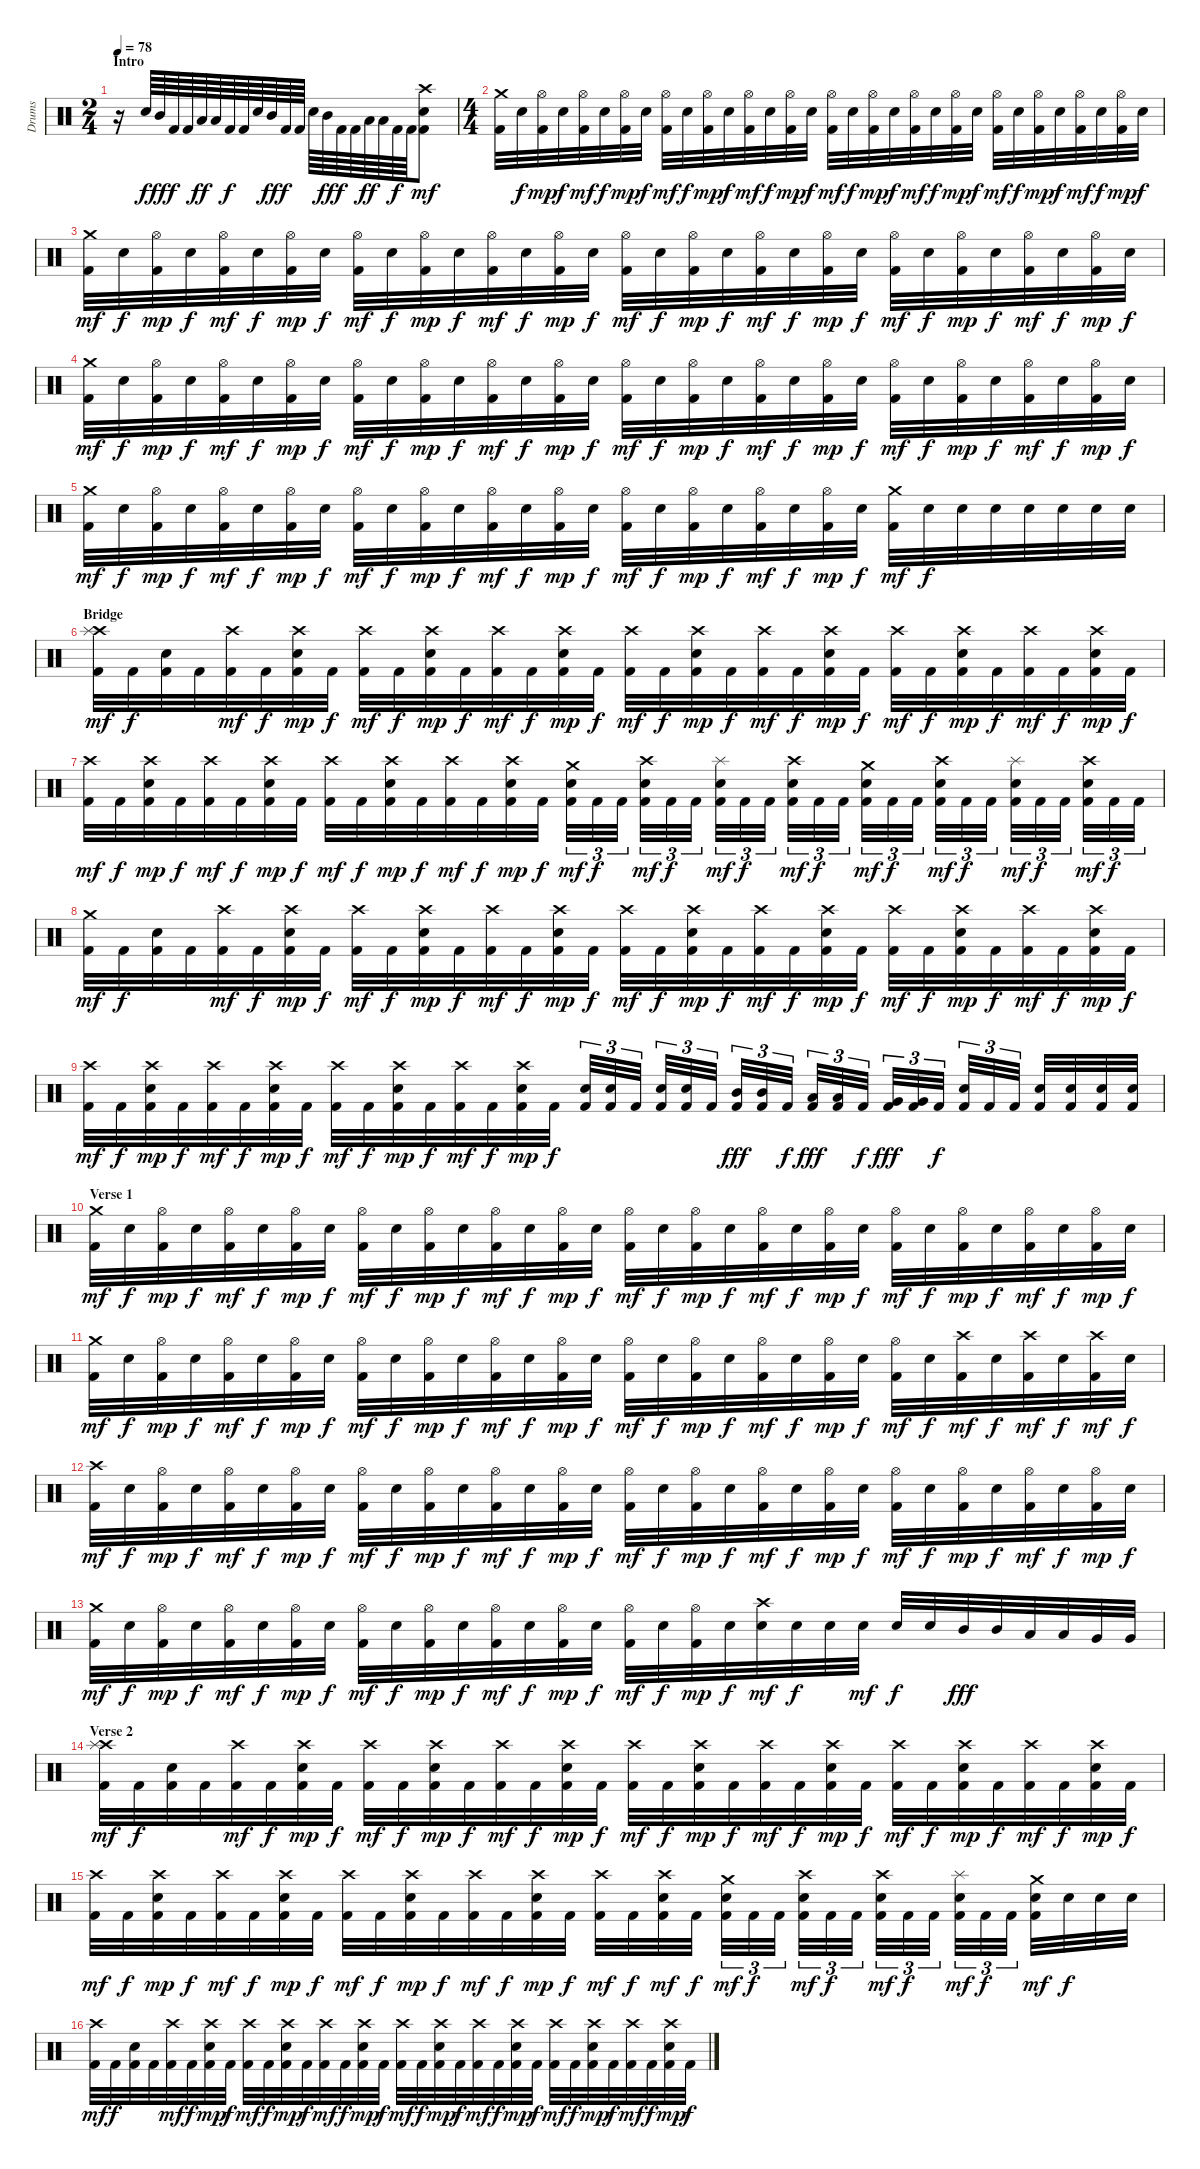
\track ("Drums" "Drums") {instrument percussion}
\staff {score}
\articulation defaults
\ts (2 4)
\section ("" "Intro")
\tempo 78
\clef neutral
\ks c
r.16{dy f} "Electric Snare (hit)".64 "Mid Tom (hit)".64{dy ff} "Kick (hit) 2".64{dy f} "Kick (hit) 2".64 "Low Tom (hit)".64{dy ff} "Low Tom (hit)".64 "Kick (hit) 2".64{dy f} "Kick (hit) 2".64 "Electric Snare (hit)".64 "Mid Tom (hit)".64{dy ff} "Kick (hit) 2".64{dy f} "Kick (hit) 2".64 "Electric Snare (hit)".64 "Mid Tom (hit)".64{dy ff} "Kick (hit) 2".64{dy f} "Kick (hit) 2".64 "Low Tom (hit)".64{dy ff} "Low Tom (hit)".64 "Kick (hit) 2".64{dy f} "Kick (hit) 2".64 ("Crash high (hit)" "Electric Snare (hit)" "Kick (hit) 2").8{dy mf} |
\ts (4 4)
("Crash medium (hit)" "Kick (hit) 2").32 "Electric Snare (hit)".32{dy f} ("Hi-Hat (open)" "Kick (hit) 2").32{dy mp} "Electric Snare (hit)".32{dy f} ("Hi-Hat (open)" "Kick (hit) 2").32{dy mf} "Electric Snare (hit)".32{dy f} ("Hi-Hat (open)" "Kick (hit) 2").32{dy mp} "Electric Snare (hit)".32{dy f} ("Hi-Hat (open)" "Kick (hit) 2").32{dy mf} "Electric Snare (hit)".32{dy f} ("Hi-Hat (open)" "Kick (hit) 2").32{dy mp} "Electric Snare (hit)".32{dy f} ("Hi-Hat (open)" "Kick (hit) 2").32{dy mf} "Electric Snare (hit)".32{dy f} ("Hi-Hat (open)" "Kick (hit) 2").32{dy mp} "Electric Snare (hit)".32{dy f} ("Hi-Hat (open)" "Kick (hit) 2").32{dy mf} "Electric Snare (hit)".32{dy f} ("Hi-Hat (open)" "Kick (hit) 2").32{dy mp} "Electric Snare (hit)".32{dy f} ("Hi-Hat (open)" "Kick (hit) 2").32{dy mf} "Electric Snare (hit)".32{dy f} ("Hi-Hat (open)" "Kick (hit) 2").32{dy mp} "Electric Snare (hit)".32{dy f} ("Hi-Hat (open)" "Kick (hit) 2").32{dy mf} "Electric Snare (hit)".32{dy f} ("Hi-Hat (open)" "Kick (hit) 2").32{dy mp} "Electric Snare (hit)".32{dy f} ("Hi-Hat (open)" "Kick (hit) 2").32{dy mf} "Electric Snare (hit)".32{dy f} ("Hi-Hat (open)" "Kick (hit) 2").32{dy mp} "Electric Snare (hit)".32{dy f} |
("Crash medium (hit)" "Kick (hit) 2").32{dy mf} "Electric Snare (hit)".32{dy f} ("Hi-Hat (open)" "Kick (hit) 2").32{dy mp} "Electric Snare (hit)".32{dy f} ("Hi-Hat (open)" "Kick (hit) 2").32{dy mf} "Electric Snare (hit)".32{dy f} ("Hi-Hat (open)" "Kick (hit) 2").32{dy mp} "Electric Snare (hit)".32{dy f} ("Hi-Hat (open)" "Kick (hit) 2").32{dy mf} "Electric Snare (hit)".32{dy f} ("Hi-Hat (open)" "Kick (hit) 2").32{dy mp} "Electric Snare (hit)".32{dy f} ("Hi-Hat (open)" "Kick (hit) 2").32{dy mf} "Electric Snare (hit)".32{dy f} ("Hi-Hat (open)" "Kick (hit) 2").32{dy mp} "Electric Snare (hit)".32{dy f} ("Hi-Hat (open)" "Kick (hit) 2").32{dy mf} "Electric Snare (hit)".32{dy f} ("Hi-Hat (open)" "Kick (hit) 2").32{dy mp} "Electric Snare (hit)".32{dy f} ("Hi-Hat (open)" "Kick (hit) 2").32{dy mf} "Electric Snare (hit)".32{dy f} ("Hi-Hat (open)" "Kick (hit) 2").32{dy mp} "Electric Snare (hit)".32{dy f} ("Hi-Hat (open)" "Kick (hit) 2").32{dy mf} "Electric Snare (hit)".32{dy f} ("Hi-Hat (open)" "Kick (hit) 2").32{dy mp} "Electric Snare (hit)".32{dy f} ("Hi-Hat (open)" "Kick (hit) 2").32{dy mf} "Electric Snare (hit)".32{dy f} ("Hi-Hat (open)" "Kick (hit) 2").32{dy mp} "Electric Snare (hit)".32{dy f} |
("Crash medium (hit)" "Kick (hit) 2").32{dy mf} "Electric Snare (hit)".32{dy f} ("Hi-Hat (open)" "Kick (hit) 2").32{dy mp} "Electric Snare (hit)".32{dy f} ("Hi-Hat (open)" "Kick (hit) 2").32{dy mf} "Electric Snare (hit)".32{dy f} ("Hi-Hat (open)" "Kick (hit) 2").32{dy mp} "Electric Snare (hit)".32{dy f} ("Hi-Hat (open)" "Kick (hit) 2").32{dy mf} "Electric Snare (hit)".32{dy f} ("Hi-Hat (open)" "Kick (hit) 2").32{dy mp} "Electric Snare (hit)".32{dy f} ("Hi-Hat (open)" "Kick (hit) 2").32{dy mf} "Electric Snare (hit)".32{dy f} ("Hi-Hat (open)" "Kick (hit) 2").32{dy mp} "Electric Snare (hit)".32{dy f} ("Hi-Hat (open)" "Kick (hit) 2").32{dy mf} "Electric Snare (hit)".32{dy f} ("Hi-Hat (open)" "Kick (hit) 2").32{dy mp} "Electric Snare (hit)".32{dy f} ("Hi-Hat (open)" "Kick (hit) 2").32{dy mf} "Electric Snare (hit)".32{dy f} ("Hi-Hat (open)" "Kick (hit) 2").32{dy mp} "Electric Snare (hit)".32{dy f} ("Hi-Hat (open)" "Kick (hit) 2").32{dy mf} "Electric Snare (hit)".32{dy f} ("Hi-Hat (open)" "Kick (hit) 2").32{dy mp} "Electric Snare (hit)".32{dy f} ("Hi-Hat (open)" "Kick (hit) 2").32{dy mf} "Electric Snare (hit)".32{dy f} ("Hi-Hat (open)" "Kick (hit) 2").32{dy mp} "Electric Snare (hit)".32{dy f} |
("Crash medium (hit)" "Kick (hit) 2").32{dy mf} "Electric Snare (hit)".32{dy f} ("Hi-Hat (open)" "Kick (hit) 2").32{dy mp} "Electric Snare (hit)".32{dy f} ("Hi-Hat (open)" "Kick (hit) 2").32{dy mf} "Electric Snare (hit)".32{dy f} ("Hi-Hat (open)" "Kick (hit) 2").32{dy mp} "Electric Snare (hit)".32{dy f} ("Hi-Hat (open)" "Kick (hit) 2").32{dy mf} "Electric Snare (hit)".32{dy f} ("Hi-Hat (open)" "Kick (hit) 2").32{dy mp} "Electric Snare (hit)".32{dy f} ("Hi-Hat (open)" "Kick (hit) 2").32{dy mf} "Electric Snare (hit)".32{dy f} ("Hi-Hat (open)" "Kick (hit) 2").32{dy mp} "Electric Snare (hit)".32{dy f} ("Hi-Hat (open)" "Kick (hit) 2").32{dy mf} "Electric Snare (hit)".32{dy f} ("Hi-Hat (open)" "Kick (hit) 2").32{dy mp} "Electric Snare (hit)".32{dy f} ("Hi-Hat (open)" "Kick (hit) 2").32{dy mf} "Electric Snare (hit)".32{dy f} ("Hi-Hat (open)" "Kick (hit) 2").32{dy mp} "Electric Snare (hit)".32{dy f} ("Crash medium (hit)" "Kick (hit) 2").32{dy mf} "Electric Snare (hit)".32{dy f} "Electric Snare (hit)".32 "Electric Snare (hit)".32 "Electric Snare (hit)".32 "Electric Snare (hit)".32 "Electric Snare (hit)".32 "Electric Snare (hit)".32 |
\section ("" "Bridge")
("Crash high (hit)" "Splash (hit)" "Kick (hit) 2").32{dy mf} "Kick (hit) 2".32{dy f} ("Electric Snare (hit)" "Kick (hit) 2").32 "Kick (hit) 2".32 ("Crash high (hit)" "Kick (hit) 2").32{dy mf} "Kick (hit) 2".32{dy f} ("Crash high (hit)" "Electric Snare (hit)" "Kick (hit) 2").32{dy mp} "Kick (hit) 2".32{dy f} ("Crash high (hit)" "Kick (hit) 2").32{dy mf} "Kick (hit) 2".32{dy f} ("Crash high (hit)" "Electric Snare (hit)" "Kick (hit) 2").32{dy mp} "Kick (hit) 2".32{dy f} ("Crash high (hit)" "Kick (hit) 2").32{dy mf} "Kick (hit) 2".32{dy f} ("Crash high (hit)" "Electric Snare (hit)" "Kick (hit) 2").32{dy mp} "Kick (hit) 2".32{dy f} ("Crash high (hit)" "Kick (hit) 2").32{dy mf} "Kick (hit) 2".32{dy f} ("Crash high (hit)" "Electric Snare (hit)" "Kick (hit) 2").32{dy mp} "Kick (hit) 2".32{dy f} ("Crash high (hit)" "Kick (hit) 2").32{dy mf} "Kick (hit) 2".32{dy f} ("Crash high (hit)" "Electric Snare (hit)" "Kick (hit) 2").32{dy mp} "Kick (hit) 2".32{dy f} ("Crash high (hit)" "Kick (hit) 2").32{dy mf} "Kick (hit) 2".32{dy f} ("Crash high (hit)" "Electric Snare (hit)" "Kick (hit) 2").32{dy mp} "Kick (hit) 2".32{dy f} ("Crash high (hit)" "Kick (hit) 2").32{dy mf} "Kick (hit) 2".32{dy f} ("Crash high (hit)" "Electric Snare (hit)" "Kick (hit) 2").32{dy mp} "Kick (hit) 2".32{dy f} |
("Crash high (hit)" "Kick (hit) 2").32{dy mf} "Kick (hit) 2".32{dy f} ("Crash high (hit)" "Electric Snare (hit)" "Kick (hit) 2").32{dy mp} "Kick (hit) 2".32{dy f} ("Crash high (hit)" "Kick (hit) 2").32{dy mf} "Kick (hit) 2".32{dy f} ("Crash high (hit)" "Electric Snare (hit)" "Kick (hit) 2").32{dy mp} "Kick (hit) 2".32{dy f} ("Crash high (hit)" "Kick (hit) 2").32{dy mf} "Kick (hit) 2".32{dy f} ("Crash high (hit)" "Electric Snare (hit)" "Kick (hit) 2").32{dy mp} "Kick (hit) 2".32{dy f} ("Crash high (hit)" "Kick (hit) 2").32{dy mf} "Kick (hit) 2".32{dy f} ("Crash high (hit)" "Electric Snare (hit)" "Kick (hit) 2").32{dy mp} "Kick (hit) 2".32{dy f} ("Crash medium (hit)" "Electric Snare (hit)" "Kick (hit) 2").32{tu (3 2) dy mf} "Kick (hit) 2".32{tu (3 2) dy f} "Kick (hit) 2".32{tu (3 2)} ("Crash high (hit)" "Electric Snare (hit)" "Kick (hit) 2").32{tu (3 2) dy mf} "Kick (hit) 2".32{tu (3 2) dy f} "Kick (hit) 2".32{tu (3 2)} ("Splash (hit)" "Electric Snare (hit)" "Kick (hit) 2").32{tu (3 2) dy mf} "Kick (hit) 2".32{tu (3 2) dy f} "Kick (hit) 2".32{tu (3 2)} ("Crash high (hit)" "Electric Snare (hit)" "Kick (hit) 2").32{tu (3 2) dy mf} "Kick (hit) 2".32{tu (3 2) dy f} "Kick (hit) 2".32{tu (3 2)} ("Crash medium (hit)" "Electric Snare (hit)" "Kick (hit) 2").32{tu (3 2) dy mf} "Kick (hit) 2".32{tu (3 2) dy f} "Kick (hit) 2".32{tu (3 2)} ("Crash high (hit)" "Electric Snare (hit)" "Kick (hit) 2").32{tu (3 2) dy mf} "Kick (hit) 2".32{tu (3 2) dy f} "Kick (hit) 2".32{tu (3 2)} ("Splash (hit)" "Electric Snare (hit)" "Kick (hit) 2").32{tu (3 2) dy mf} "Kick (hit) 2".32{tu (3 2) dy f} "Kick (hit) 2".32{tu (3 2)} ("Crash high (hit)" "Electric Snare (hit)" "Kick (hit) 2").32{tu (3 2) dy mf} "Kick (hit) 2".32{tu (3 2) dy f} "Kick (hit) 2".32{tu (3 2)} |
("Crash medium (hit)" "Kick (hit) 2").32{dy mf} "Kick (hit) 2".32{dy f} ("Electric Snare (hit)" "Kick (hit) 2").32 "Kick (hit) 2".32 ("Crash high (hit)" "Kick (hit) 2").32{dy mf} "Kick (hit) 2".32{dy f} ("Crash high (hit)" "Electric Snare (hit)" "Kick (hit) 2").32{dy mp} "Kick (hit) 2".32{dy f} ("Crash high (hit)" "Kick (hit) 2").32{dy mf} "Kick (hit) 2".32{dy f} ("Crash high (hit)" "Electric Snare (hit)" "Kick (hit) 2").32{dy mp} "Kick (hit) 2".32{dy f} ("Crash high (hit)" "Kick (hit) 2").32{dy mf} "Kick (hit) 2".32{dy f} ("Crash high (hit)" "Electric Snare (hit)" "Kick (hit) 2").32{dy mp} "Kick (hit) 2".32{dy f} ("Crash high (hit)" "Kick (hit) 2").32{dy mf} "Kick (hit) 2".32{dy f} ("Crash high (hit)" "Electric Snare (hit)" "Kick (hit) 2").32{dy mp} "Kick (hit) 2".32{dy f} ("Crash high (hit)" "Kick (hit) 2").32{dy mf} "Kick (hit) 2".32{dy f} ("Crash high (hit)" "Electric Snare (hit)" "Kick (hit) 2").32{dy mp} "Kick (hit) 2".32{dy f} ("Crash high (hit)" "Kick (hit) 2").32{dy mf} "Kick (hit) 2".32{dy f} ("Crash high (hit)" "Electric Snare (hit)" "Kick (hit) 2").32{dy mp} "Kick (hit) 2".32{dy f} ("Crash high (hit)" "Kick (hit) 2").32{dy mf} "Kick (hit) 2".32{dy f} ("Crash high (hit)" "Electric Snare (hit)" "Kick (hit) 2").32{dy mp} "Kick (hit) 2".32{dy f} |
("Crash high (hit)" "Kick (hit) 2").32{dy mf} "Kick (hit) 2".32{dy f} ("Crash high (hit)" "Electric Snare (hit)" "Kick (hit) 2").32{dy mp} "Kick (hit) 2".32{dy f} ("Crash high (hit)" "Kick (hit) 2").32{dy mf} "Kick (hit) 2".32{dy f} ("Crash high (hit)" "Electric Snare (hit)" "Kick (hit) 2").32{dy mp} "Kick (hit) 2".32{dy f} ("Crash high (hit)" "Kick (hit) 2").32{dy mf} "Kick (hit) 2".32{dy f} ("Crash high (hit)" "Electric Snare (hit)" "Kick (hit) 2").32{dy mp} "Kick (hit) 2".32{dy f} ("Crash high (hit)" "Kick (hit) 2").32{dy mf} "Kick (hit) 2".32{dy f} ("Crash high (hit)" "Electric Snare (hit)" "Kick (hit) 2").32{dy mp} "Kick (hit) 2".32{dy f} ("Electric Snare (hit)" "Kick (hit) 2").32{tu (3 2)} ("Electric Snare (hit)" "Kick (hit) 2").32{tu (3 2)} "Kick (hit) 2".32{tu (3 2)} ("Electric Snare (hit)" "Kick (hit) 2").32{tu (3 2)} ("Electric Snare (hit)" "Kick (hit) 2").32{tu (3 2)} "Kick (hit) 2".32{tu (3 2)} ("Mid Tom (hit)" "Kick (hit) 2").32{tu (3 2) dy fff} ("Mid Tom (hit)" "Kick (hit) 2").32{tu (3 2)} "Kick (hit) 2".32{tu (3 2) dy f} ("Low Tom (hit)" "Kick (hit) 2").32{tu (3 2) dy fff} ("Low Tom (hit)" "Kick (hit) 2").32{tu (3 2)} "Kick (hit) 2".32{tu (3 2) dy f} ("Very Low Tom (hit)" "Kick (hit) 2").32{tu (3 2) dy fff} ("Very Low Tom (hit)" "Kick (hit) 2").32{tu (3 2)} "Kick (hit) 2".32{tu (3 2) dy f} ("Electric Snare (hit)" "Kick (hit) 2").32{tu (3 2)} "Kick (hit) 2".32{tu (3 2)} "Kick (hit) 2".32{tu (3 2)} ("Electric Snare (hit)" "Kick (hit) 2").32 ("Electric Snare (hit)" "Kick (hit) 2").32 ("Electric Snare (hit)" "Kick (hit) 2").32 ("Electric Snare (hit)" "Kick (hit) 2").32 |
\section ("" "Verse 1")
("Crash medium (hit)" "Kick (hit) 2").32{dy mf} "Electric Snare (hit)".32{dy f} ("Hi-Hat (open)" "Kick (hit) 2").32{dy mp} "Electric Snare (hit)".32{dy f} ("Hi-Hat (open)" "Kick (hit) 2").32{dy mf} "Electric Snare (hit)".32{dy f} ("Hi-Hat (open)" "Kick (hit) 2").32{dy mp} "Electric Snare (hit)".32{dy f} ("Hi-Hat (open)" "Kick (hit) 2").32{dy mf} "Electric Snare (hit)".32{dy f} ("Hi-Hat (open)" "Kick (hit) 2").32{dy mp} "Electric Snare (hit)".32{dy f} ("Hi-Hat (open)" "Kick (hit) 2").32{dy mf} "Electric Snare (hit)".32{dy f} ("Hi-Hat (open)" "Kick (hit) 2").32{dy mp} "Electric Snare (hit)".32{dy f} ("Hi-Hat (open)" "Kick (hit) 2").32{dy mf} "Electric Snare (hit)".32{dy f} ("Hi-Hat (open)" "Kick (hit) 2").32{dy mp} "Electric Snare (hit)".32{dy f} ("Hi-Hat (open)" "Kick (hit) 2").32{dy mf} "Electric Snare (hit)".32{dy f} ("Hi-Hat (open)" "Kick (hit) 2").32{dy mp} "Electric Snare (hit)".32{dy f} ("Hi-Hat (open)" "Kick (hit) 2").32{dy mf} "Electric Snare (hit)".32{dy f} ("Hi-Hat (open)" "Kick (hit) 2").32{dy mp} "Electric Snare (hit)".32{dy f} ("Hi-Hat (open)" "Kick (hit) 2").32{dy mf} "Electric Snare (hit)".32{dy f} ("Hi-Hat (open)" "Kick (hit) 2").32{dy mp} "Electric Snare (hit)".32{dy f} |
("Crash medium (hit)" "Kick (hit) 2").32{dy mf} "Electric Snare (hit)".32{dy f} ("Hi-Hat (open)" "Kick (hit) 2").32{dy mp} "Electric Snare (hit)".32{dy f} ("Hi-Hat (open)" "Kick (hit) 2").32{dy mf} "Electric Snare (hit)".32{dy f} ("Hi-Hat (open)" "Kick (hit) 2").32{dy mp} "Electric Snare (hit)".32{dy f} ("Hi-Hat (open)" "Kick (hit) 2").32{dy mf} "Electric Snare (hit)".32{dy f} ("Hi-Hat (open)" "Kick (hit) 2").32{dy mp} "Electric Snare (hit)".32{dy f} ("Hi-Hat (open)" "Kick (hit) 2").32{dy mf} "Electric Snare (hit)".32{dy f} ("Hi-Hat (open)" "Kick (hit) 2").32{dy mp} "Electric Snare (hit)".32{dy f} ("Hi-Hat (open)" "Kick (hit) 2").32{dy mf} "Electric Snare (hit)".32{dy f} ("Hi-Hat (open)" "Kick (hit) 2").32{dy mp} "Electric Snare (hit)".32{dy f} ("Hi-Hat (open)" "Kick (hit) 2").32{dy mf} "Electric Snare (hit)".32{dy f} ("Hi-Hat (open)" "Kick (hit) 2").32{dy mp} "Electric Snare (hit)".32{dy f} ("Hi-Hat (open)" "Kick (hit) 2").32{dy mf} "Electric Snare (hit)".32{dy f} ("Crash high (hit)" "Kick (hit) 2").32{dy mf} "Electric Snare (hit)".32{dy f} ("Crash high (hit)" "Kick (hit) 2").32{dy mf} "Electric Snare (hit)".32{dy f} ("Crash high (hit)" "Kick (hit) 2").32{dy mf} "Electric Snare (hit)".32{dy f} |
("Crash high (hit)" "Kick (hit) 2").32{dy mf} "Electric Snare (hit)".32{dy f} ("Hi-Hat (open)" "Kick (hit) 2").32{dy mp} "Electric Snare (hit)".32{dy f} ("Hi-Hat (open)" "Kick (hit) 2").32{dy mf} "Electric Snare (hit)".32{dy f} ("Hi-Hat (open)" "Kick (hit) 2").32{dy mp} "Electric Snare (hit)".32{dy f} ("Hi-Hat (open)" "Kick (hit) 2").32{dy mf} "Electric Snare (hit)".32{dy f} ("Hi-Hat (open)" "Kick (hit) 2").32{dy mp} "Electric Snare (hit)".32{dy f} ("Hi-Hat (open)" "Kick (hit) 2").32{dy mf} "Electric Snare (hit)".32{dy f} ("Hi-Hat (open)" "Kick (hit) 2").32{dy mp} "Electric Snare (hit)".32{dy f} ("Hi-Hat (open)" "Kick (hit) 2").32{dy mf} "Electric Snare (hit)".32{dy f} ("Hi-Hat (open)" "Kick (hit) 2").32{dy mp} "Electric Snare (hit)".32{dy f} ("Hi-Hat (open)" "Kick (hit) 2").32{dy mf} "Electric Snare (hit)".32{dy f} ("Hi-Hat (open)" "Kick (hit) 2").32{dy mp} "Electric Snare (hit)".32{dy f} ("Hi-Hat (open)" "Kick (hit) 2").32{dy mf} "Electric Snare (hit)".32{dy f} ("Hi-Hat (open)" "Kick (hit) 2").32{dy mp} "Electric Snare (hit)".32{dy f} ("Hi-Hat (open)" "Kick (hit) 2").32{dy mf} "Electric Snare (hit)".32{dy f} ("Hi-Hat (open)" "Kick (hit) 2").32{dy mp} "Electric Snare (hit)".32{dy f} |
("Crash medium (hit)" "Kick (hit) 2").32{dy mf} "Electric Snare (hit)".32{dy f} ("Hi-Hat (open)" "Kick (hit) 2").32{dy mp} "Electric Snare (hit)".32{dy f} ("Hi-Hat (open)" "Kick (hit) 2").32{dy mf} "Electric Snare (hit)".32{dy f} ("Hi-Hat (open)" "Kick (hit) 2").32{dy mp} "Electric Snare (hit)".32{dy f} ("Hi-Hat (open)" "Kick (hit) 2").32{dy mf} "Electric Snare (hit)".32{dy f} ("Hi-Hat (open)" "Kick (hit) 2").32{dy mp} "Electric Snare (hit)".32{dy f} ("Hi-Hat (open)" "Kick (hit) 2").32{dy mf} "Electric Snare (hit)".32{dy f} ("Hi-Hat (open)" "Kick (hit) 2").32{dy mp} "Electric Snare (hit)".32{dy f} ("Hi-Hat (open)" "Kick (hit) 2").32{dy mf} "Electric Snare (hit)".32{dy f} ("Hi-Hat (open)" "Kick (hit) 2").32{dy mp} "Electric Snare (hit)".32{dy f} ("Crash high (hit)" "Electric Snare (hit)").32{dy mf} "Electric Snare (hit)".32{dy f} "Electric Snare (hit)".32 "Electric Snare (hit)".32{dy mf} "Electric Snare (hit)".32{dy f} "Electric Snare (hit)".32 "Mid Tom (hit)".32{dy fff} "Mid Tom (hit)".32 "Low Tom (hit)".32 "Low Tom (hit)".32 "Very Low Tom (hit)".32 "Very Low Tom (hit)".32 |
\section ("" "Verse 2")
("Crash high (hit)" "Splash (hit)" "Kick (hit) 2").32{dy mf} "Kick (hit) 2".32{dy f} ("Electric Snare (hit)" "Kick (hit) 2").32 "Kick (hit) 2".32 ("Crash high (hit)" "Kick (hit) 2").32{dy mf} "Kick (hit) 2".32{dy f} ("Crash high (hit)" "Electric Snare (hit)" "Kick (hit) 2").32{dy mp} "Kick (hit) 2".32{dy f} ("Crash high (hit)" "Kick (hit) 2").32{dy mf} "Kick (hit) 2".32{dy f} ("Crash high (hit)" "Electric Snare (hit)" "Kick (hit) 2").32{dy mp} "Kick (hit) 2".32{dy f} ("Crash high (hit)" "Kick (hit) 2").32{dy mf} "Kick (hit) 2".32{dy f} ("Crash high (hit)" "Electric Snare (hit)" "Kick (hit) 2").32{dy mp} "Kick (hit) 2".32{dy f} ("Crash high (hit)" "Kick (hit) 2").32{dy mf} "Kick (hit) 2".32{dy f} ("Crash high (hit)" "Electric Snare (hit)" "Kick (hit) 2").32{dy mp} "Kick (hit) 2".32{dy f} ("Crash high (hit)" "Kick (hit) 2").32{dy mf} "Kick (hit) 2".32{dy f} ("Crash high (hit)" "Electric Snare (hit)" "Kick (hit) 2").32{dy mp} "Kick (hit) 2".32{dy f} ("Crash high (hit)" "Kick (hit) 2").32{dy mf} "Kick (hit) 2".32{dy f} ("Crash high (hit)" "Electric Snare (hit)" "Kick (hit) 2").32{dy mp} "Kick (hit) 2".32{dy f} ("Crash high (hit)" "Kick (hit) 2").32{dy mf} "Kick (hit) 2".32{dy f} ("Crash high (hit)" "Electric Snare (hit)" "Kick (hit) 2").32{dy mp} "Kick (hit) 2".32{dy f} |
("Crash high (hit)" "Kick (hit) 2").32{dy mf} "Kick (hit) 2".32{dy f} ("Crash high (hit)" "Electric Snare (hit)" "Kick (hit) 2").32{dy mp} "Kick (hit) 2".32{dy f} ("Crash high (hit)" "Kick (hit) 2").32{dy mf} "Kick (hit) 2".32{dy f} ("Crash high (hit)" "Electric Snare (hit)" "Kick (hit) 2").32{dy mp} "Kick (hit) 2".32{dy f} ("Crash high (hit)" "Kick (hit) 2").32{dy mf} "Kick (hit) 2".32{dy f} ("Crash high (hit)" "Electric Snare (hit)" "Kick (hit) 2").32{dy mp} "Kick (hit) 2".32{dy f} ("Crash high (hit)" "Kick (hit) 2").32{dy mf} "Kick (hit) 2".32{dy f} ("Crash high (hit)" "Electric Snare (hit)" "Kick (hit) 2").32{dy mp} "Kick (hit) 2".32{dy f} ("Crash high (hit)" "Kick (hit) 2").32{dy mf} "Kick (hit) 2".32{dy f} ("Crash high (hit)" "Electric Snare (hit)" "Kick (hit) 2").32{dy mf} "Kick (hit) 2".32{dy f} ("Crash medium (hit)" "Electric Snare (hit)" "Kick (hit) 2").32{tu (3 2) dy mf} "Kick (hit) 2".32{tu (3 2) dy f} "Kick (hit) 2".32{tu (3 2)} ("Crash high (hit)" "Electric Snare (hit)" "Kick (hit) 2").32{tu (3 2) dy mf} "Kick (hit) 2".32{tu (3 2) dy f} "Kick (hit) 2".32{tu (3 2)} ("Crash high (hit)" "Electric Snare (hit)" "Kick (hit) 2").32{tu (3 2) dy mf} "Kick (hit) 2".32{tu (3 2) dy f} "Kick (hit) 2".32{tu (3 2)} ("Splash (hit)" "Electric Snare (hit)" "Kick (hit) 2").32{tu (3 2) dy mf} "Kick (hit) 2".32{tu (3 2) dy f} "Kick (hit) 2".32{tu (3 2)} ("Crash medium (hit)" "Electric Snare (hit)" "Kick (hit) 2").32{dy mf} "Electric Snare (hit)".32{dy f} "Electric Snare (hit)".32 "Electric Snare (hit)".32 |
("Crash high (hit)" "Kick (hit) 2").32{dy mf} "Kick (hit) 2".32{dy f} ("Electric Snare (hit)" "Kick (hit) 2").32 "Kick (hit) 2".32 ("Crash high (hit)" "Kick (hit) 2").32{dy mf} "Kick (hit) 2".32{dy f} ("Crash high (hit)" "Electric Snare (hit)" "Kick (hit) 2").32{dy mp} "Kick (hit) 2".32{dy f} ("Crash high (hit)" "Kick (hit) 2").32{dy mf} "Kick (hit) 2".32{dy f} ("Crash high (hit)" "Electric Snare (hit)" "Kick (hit) 2").32{dy mp} "Kick (hit) 2".32{dy f} ("Crash high (hit)" "Kick (hit) 2").32{dy mf} "Kick (hit) 2".32{dy f} ("Crash high (hit)" "Electric Snare (hit)" "Kick (hit) 2").32{dy mp} "Kick (hit) 2".32{dy f} ("Crash high (hit)" "Kick (hit) 2").32{dy mf} "Kick (hit) 2".32{dy f} ("Crash high (hit)" "Electric Snare (hit)" "Kick (hit) 2").32{dy mp} "Kick (hit) 2".32{dy f} ("Crash high (hit)" "Kick (hit) 2").32{dy mf} "Kick (hit) 2".32{dy f} ("Crash high (hit)" "Electric Snare (hit)" "Kick (hit) 2").32{dy mp} "Kick (hit) 2".32{dy f} ("Crash high (hit)" "Kick (hit) 2").32{dy mf} "Kick (hit) 2".32{dy f} ("Crash high (hit)" "Electric Snare (hit)" "Kick (hit) 2").32{dy mp} "Kick (hit) 2".32{dy f} ("Crash high (hit)" "Kick (hit) 2").32{dy mf} "Kick (hit) 2".32{dy f} ("Crash high (hit)" "Electric Snare (hit)" "Kick (hit) 2").32{dy mp} "Kick (hit) 2".32{dy f}
